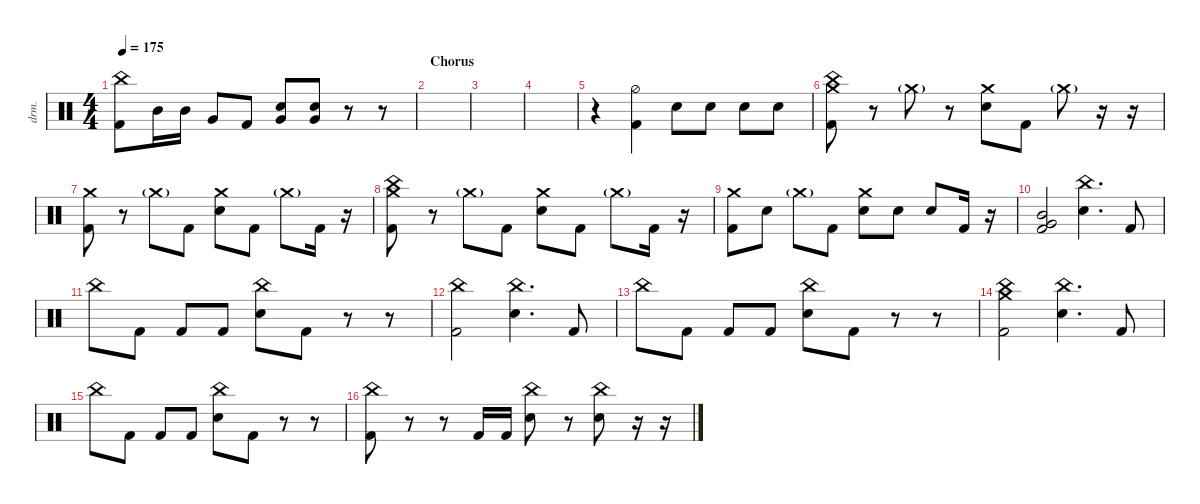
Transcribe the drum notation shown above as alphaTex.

\defaultSystemsLayout 4
\hideDynamics
\bracketExtendMode nobrackets
\track ("Drums - Mario" "drm.") {instrument percussion}
\staff {score}
\articulation defaults
\ts (4 4)
\tempo 175
\clef neutral
\ks c
("China (hit)" "Kick (hit) 2").8{dy ff} "Mid Tom (hit)".16 "Mid Tom (hit)".16 "Very Low Tom (hit)".8 "Kick (hit) 2".8 ("Snare (hit) 2" "Very Low Tom (hit)").8 ("Snare (hit) 2" "Very Low Tom (hit)").8 r.8 r.8 |
\section ("" "Chorus")
|
|
|
r.4 ("Kick (hit) 2" "Hi-Hat (half)").4 "Snare (hit) 2".8 "Snare (hit) 2".8 "Snare (hit) 2".8 "Snare (hit) 2".8 |
("Crash medium (hit)" "China (hit)" "Kick (hit) 2").8 r.8 "Crash medium (hit)"{g}.8 r.8 ("Crash medium (hit)" "Snare (hit) 2").8 "Kick (hit) 2".8 "Crash medium (hit)"{g}.8 r.16 r.16 |
("Crash medium (hit)" "Kick (hit) 2").8 r.8 "Crash medium (hit)"{g}.8 "Kick (hit) 2".8 ("Crash medium (hit)" "Snare (hit) 2").8 "Kick (hit) 2".8 "Crash medium (hit)"{g}.8 "Kick (hit) 2".16 r.16 |
("Crash medium (hit)" "Kick (hit) 2" "China (hit)").8 r.8 "Crash medium (hit)"{g}.8 "Kick (hit) 2".8 ("Crash medium (hit)" "Snare (hit) 2").8 "Kick (hit) 2".8 "Crash medium (hit)"{g}.8 "Kick (hit) 2".16 r.16 |
("Crash medium (hit)" "Kick (hit) 2").8 "Snare (hit) 2".8 "Crash medium (hit)"{g}.8 "Kick (hit) 2".8 ("Snare (hit) 2" "Crash medium (hit)").8 "Snare (hit) 2".8 "Snare (hit) 2".8 "Kick (hit) 2".16 r.16 |
("Kick (hit) 2" "Very Low Tom (hit)" "Mid Tom (hit)").2 ("Snare (hit) 2" "China (hit)").4{d} "Kick (hit) 2".8 |
"China (hit)".8 "Kick (hit) 2".8 "Kick (hit) 2".8 "Kick (hit) 2".8 ("Snare (hit) 2" "China (hit)").8 "Kick (hit) 2".8 r.8 r.8 |
("Kick (hit) 2" "China (hit)").2 ("Snare (hit) 2" "China (hit)").4{d} "Kick (hit) 2".8 |
"China (hit)".8 "Kick (hit) 2".8 "Kick (hit) 2".8 "Kick (hit) 2".8 ("Snare (hit) 2" "China (hit)").8 "Kick (hit) 2".8 r.8 r.8 |
("China (hit)" "Crash medium (hit)" "Kick (hit) 2").2 ("Snare (hit) 2" "China (hit)").4{d} "Kick (hit) 2".8 |
"China (hit)".8 "Kick (hit) 2".8 "Kick (hit) 2".8 "Kick (hit) 2".8 ("Snare (hit) 2" "China (hit)").8 "Kick (hit) 2".8 r.8 r.8 |
("Kick (hit) 2" "China (hit)").8 r.8 r.8 "Kick (hit) 2".16 "Kick (hit) 2".16 ("Snare (hit) 2" "China (hit)").8 r.8 ("Snare (hit) 2" "China (hit)").8 r.16 r.16
